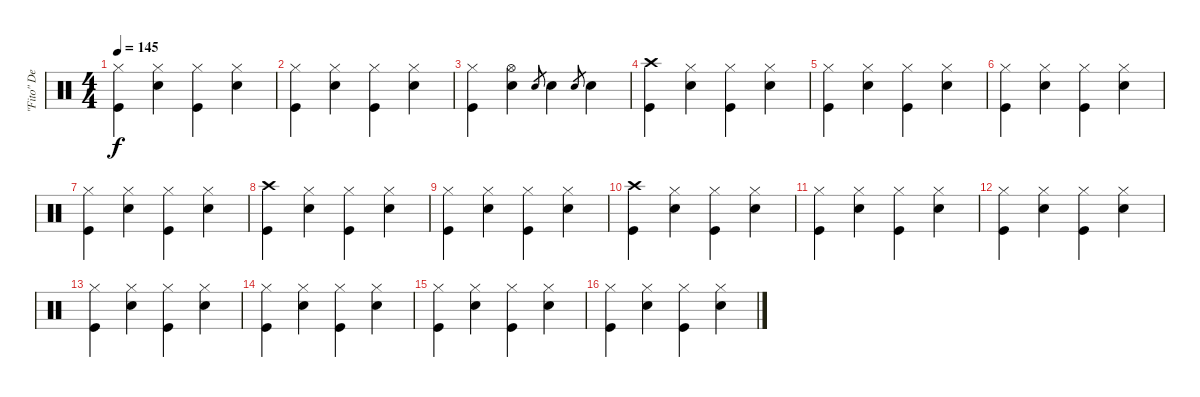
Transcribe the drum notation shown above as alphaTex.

\track ("\"Fito\" De La Parra" "\"Fito\" De ") {instrument percussion}
\staff {score}
\articulation defaults
\ts (4 4)
\tempo 145
\clef neutral
\ks c
("Hi-Hat (closed)" "Kick (hit)").4{dy f} ("Hi-Hat (closed)" "Snare (hit) 2").4 ("Hi-Hat (closed)" "Kick (hit)").4 ("Hi-Hat (closed)" "Snare (hit) 2").4 |
("Hi-Hat (closed)" "Kick (hit)").4 ("Hi-Hat (closed)" "Snare (hit) 2").4 ("Hi-Hat (closed)" "Kick (hit)").4 ("Hi-Hat (closed)" "Snare (hit) 2").4 |
("Hi-Hat (closed)" "Kick (hit)").4 ("Hi-Hat (open)" "Snare (hit) 2").4 "Snare (hit) 2".8{gr} "Snare (hit) 2".4 "Snare (hit) 2".8{gr} "Snare (hit) 2".4 |
("Crash high (hit)" "Kick (hit)").4 ("Hi-Hat (closed)" "Snare (hit) 2").4 ("Hi-Hat (closed)" "Kick (hit)").4 ("Hi-Hat (closed)" "Snare (hit) 2").4 |
("Hi-Hat (closed)" "Kick (hit)").4 ("Hi-Hat (closed)" "Snare (hit) 2").4 ("Hi-Hat (closed)" "Kick (hit)").4 ("Hi-Hat (closed)" "Snare (hit) 2").4 |
("Hi-Hat (closed)" "Kick (hit)").4 ("Hi-Hat (closed)" "Snare (hit) 2").4 ("Hi-Hat (closed)" "Kick (hit)").4 ("Hi-Hat (closed)" "Snare (hit) 2").4 |
("Hi-Hat (closed)" "Kick (hit)").4 ("Hi-Hat (closed)" "Snare (hit) 2").4 ("Hi-Hat (closed)" "Kick (hit)").4 ("Hi-Hat (closed)" "Snare (hit) 2").4 |
("Crash high (hit)" "Kick (hit)").4 ("Hi-Hat (closed)" "Snare (hit) 2").4 ("Hi-Hat (closed)" "Kick (hit)").4 ("Hi-Hat (closed)" "Snare (hit) 2").4 |
("Hi-Hat (closed)" "Kick (hit)").4 ("Hi-Hat (closed)" "Snare (hit) 2").4 ("Hi-Hat (closed)" "Kick (hit)").4 ("Hi-Hat (closed)" "Snare (hit) 2").4 |
("Crash high (hit)" "Kick (hit)").4 ("Hi-Hat (closed)" "Snare (hit) 2").4 ("Hi-Hat (closed)" "Kick (hit)").4 ("Hi-Hat (closed)" "Snare (hit) 2").4 |
("Hi-Hat (closed)" "Kick (hit)").4 ("Hi-Hat (closed)" "Snare (hit) 2").4 ("Hi-Hat (closed)" "Kick (hit)").4 ("Hi-Hat (closed)" "Snare (hit) 2").4 |
("Hi-Hat (closed)" "Kick (hit)").4 ("Hi-Hat (closed)" "Snare (hit) 2").4 ("Hi-Hat (closed)" "Kick (hit)").4 ("Hi-Hat (closed)" "Snare (hit) 2").4 |
("Hi-Hat (closed)" "Kick (hit)").4 ("Hi-Hat (closed)" "Snare (hit) 2").4 ("Hi-Hat (closed)" "Kick (hit)").4 ("Hi-Hat (closed)" "Snare (hit) 2").4 |
("Hi-Hat (closed)" "Kick (hit)").4 ("Hi-Hat (closed)" "Snare (hit) 2").4 ("Hi-Hat (closed)" "Kick (hit)").4 ("Hi-Hat (closed)" "Snare (hit) 2").4 |
("Hi-Hat (closed)" "Kick (hit)").4 ("Hi-Hat (closed)" "Snare (hit) 2").4 ("Hi-Hat (closed)" "Kick (hit)").4 ("Hi-Hat (closed)" "Snare (hit) 2").4 |
("Hi-Hat (closed)" "Kick (hit)").4 ("Hi-Hat (closed)" "Snare (hit) 2").4 ("Hi-Hat (closed)" "Kick (hit)").4 ("Hi-Hat (closed)" "Snare (hit) 2").4
